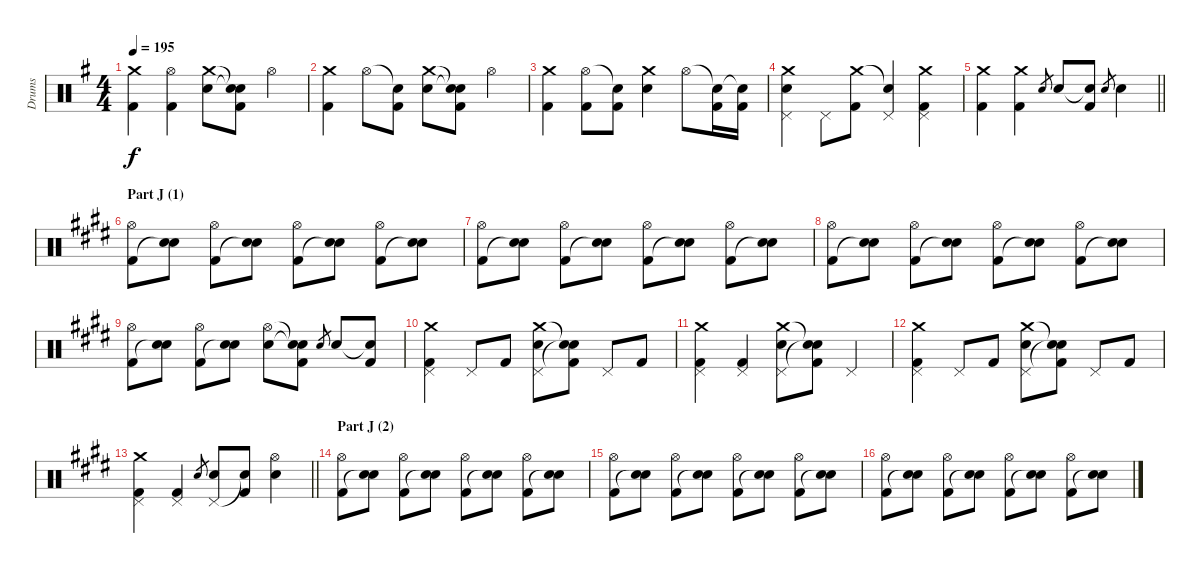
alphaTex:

\track ("Drums" "Drums") {instrument percussion}
\staff {score}
\articulation defaults
\ts (4 4)
\tempo 195
\clef neutral
\ks g
("Crash medium (hit)" "Kick (hit) 2").4{dy f} ("Hi-Hat (open)" "Kick (hit) 2").4 ("Crash medium (hit)" "Electric Snare (hit)").8 ("Snare (hit)"{t} "Snare (hit)"{t} "Kick (hit) 2").8 "Hi-Hat (open)".4 |
("Crash medium (hit)" "Kick (hit) 2").4 "Hi-Hat (open)".8 ("Snare (hit)"{t} "Kick (hit) 2").8 ("Crash medium (hit)" "Electric Snare (hit)").8 ("Snare (hit)"{t} "Snare (hit)"{t} "Kick (hit) 2").8 "Hi-Hat (open)".4 |
("Crash medium (hit)" "Kick (hit) 2").4 ("Hi-Hat (open)" "Kick (hit) 2").8 ("Snare (hit)"{t} "Kick (hit) 2").8 ("Crash medium (hit)" "Electric Snare (hit)").4 "Hi-Hat (open)".8 ("Snare (hit)"{t} "Kick (hit) 2").16 ("Snare (hit)"{t} "Kick (hit) 2").16 |
("Crash medium (hit)" "Pedal Hi-Hat (hit)" "Electric Snare (hit)").4 "Pedal Hi-Hat (hit)".8 ("Crash medium (hit)" "Kick (hit) 2").8 ("Snare (hit)"{t} "Pedal Hi-Hat (hit)").4 ("Crash medium (hit)" "Pedal Hi-Hat (hit)" "Kick (hit) 2").4 |
\barLineRight lightlight
("Crash medium (hit)" "Kick (hit) 2").4 ("Crash medium (hit)" "Kick (hit) 2").4 "Electric Snare (hit)".8{gr} "Electric Snare (hit)".8 ("Snare (hit)"{t} "Kick (hit) 2").8 "Electric Snare (hit)".8{gr} "Electric Snare (hit)".4 |
\section ("" "Part J (1)")
\ks e
("Hi-Hat (open)" "Kick (hit) 2").8 ("Electric Snare (hit)" "Snare (hit)"{t}).8 ("Hi-Hat (open)" "Kick (hit) 2").8 ("Electric Snare (hit)" "Snare (hit)"{t}).8 ("Hi-Hat (open)" "Kick (hit) 2").8 ("Electric Snare (hit)" "Snare (hit)"{t}).8 ("Hi-Hat (open)" "Kick (hit) 2").8 ("Electric Snare (hit)" "Snare (hit)"{t}).8 |
("Hi-Hat (open)" "Kick (hit) 2").8 ("Electric Snare (hit)" "Snare (hit)"{t}).8 ("Hi-Hat (open)" "Kick (hit) 2").8 ("Electric Snare (hit)" "Snare (hit)"{t}).8 ("Hi-Hat (open)" "Kick (hit) 2").8 ("Electric Snare (hit)" "Snare (hit)"{t}).8 ("Hi-Hat (open)" "Kick (hit) 2").8 ("Electric Snare (hit)" "Snare (hit)"{t}).8 |
("Hi-Hat (open)" "Kick (hit) 2").8 ("Electric Snare (hit)" "Snare (hit)"{t}).8 ("Hi-Hat (open)" "Kick (hit) 2").8 ("Electric Snare (hit)" "Snare (hit)"{t}).8 ("Hi-Hat (open)" "Kick (hit) 2").8 ("Electric Snare (hit)" "Snare (hit)"{t}).8 ("Hi-Hat (open)" "Kick (hit) 2").8 ("Electric Snare (hit)" "Snare (hit)"{t}).8 |
("Hi-Hat (open)" "Kick (hit) 2").8 ("Electric Snare (hit)" "Snare (hit)"{t}).8 ("Hi-Hat (open)" "Kick (hit) 2").8 ("Electric Snare (hit)" "Snare (hit)"{t}).8 ("Hi-Hat (open)" "Electric Snare (hit)").8 ("Snare (hit)"{t} "Electric Snare (hit)"{t} "Kick (hit) 2").8 "Electric Snare (hit)".8{gr} "Electric Snare (hit)".8 ("Electric Snare (hit)"{t} "Kick (hit) 2").8 |
("Crash medium (hit)" "Pedal Hi-Hat (hit)" "Kick (hit) 2").4 "Pedal Hi-Hat (hit)".8 "Kick (hit) 2".8 ("Crash medium (hit)" "Pedal Hi-Hat (hit)" "Electric Snare (hit)").8 ("Snare (hit)"{t} "Snare (hit)"{t} "Kick (hit) 2").8 "Pedal Hi-Hat (hit)".8 "Kick (hit) 2".8 |
("Crash medium (hit)" "Pedal Hi-Hat (hit)" "Kick (hit) 2").4 ("Pedal Hi-Hat (hit)" "Kick (hit) 2").4 ("Crash medium (hit)" "Pedal Hi-Hat (hit)" "Electric Snare (hit)").8 ("Snare (hit)"{t} "Snare (hit)"{t} "Kick (hit) 2").8 "Pedal Hi-Hat (hit)".4 |
("Crash medium (hit)" "Pedal Hi-Hat (hit)" "Kick (hit) 2").4 "Pedal Hi-Hat (hit)".8 "Kick (hit) 2".8 ("Crash medium (hit)" "Pedal Hi-Hat (hit)" "Electric Snare (hit)").8 ("Snare (hit)"{t} "Snare (hit)"{t} "Kick (hit) 2").8 "Pedal Hi-Hat (hit)".8 "Kick (hit) 2".8 |
\barLineRight lightlight
("Crash medium (hit)" "Pedal Hi-Hat (hit)" "Kick (hit) 2").4 ("Pedal Hi-Hat (hit)" "Kick (hit) 2").4 "Electric Snare (hit)".8{gr} ("Pedal Hi-Hat (hit)" "Electric Snare (hit)").8 ("Snare (hit)"{t} "Kick (hit) 2").8 ("Hi-Hat (open)" "Electric Snare (hit)").4 |
\section ("" "Part J (2)")
("Hi-Hat (open)" "Kick (hit) 2").8 ("Electric Snare (hit)" "Snare (hit)"{t}).8 ("Hi-Hat (open)" "Kick (hit) 2").8 ("Electric Snare (hit)" "Snare (hit)"{t}).8 ("Hi-Hat (open)" "Kick (hit) 2").8 ("Electric Snare (hit)" "Snare (hit)"{t}).8 ("Hi-Hat (open)" "Kick (hit) 2").8 ("Electric Snare (hit)" "Snare (hit)"{t}).8 |
("Hi-Hat (open)" "Kick (hit) 2").8 ("Electric Snare (hit)" "Snare (hit)"{t}).8 ("Hi-Hat (open)" "Kick (hit) 2").8 ("Electric Snare (hit)" "Snare (hit)"{t}).8 ("Hi-Hat (open)" "Kick (hit) 2").8 ("Electric Snare (hit)" "Snare (hit)"{t}).8 ("Hi-Hat (open)" "Kick (hit) 2").8 ("Electric Snare (hit)" "Snare (hit)"{t}).8 |
("Hi-Hat (open)" "Kick (hit) 2").8 ("Electric Snare (hit)" "Snare (hit)"{t}).8 ("Hi-Hat (open)" "Kick (hit) 2").8 ("Electric Snare (hit)" "Snare (hit)"{t}).8 ("Hi-Hat (open)" "Kick (hit) 2").8 ("Electric Snare (hit)" "Snare (hit)"{t}).8 ("Hi-Hat (open)" "Kick (hit) 2").8 ("Electric Snare (hit)" "Snare (hit)"{t}).8
